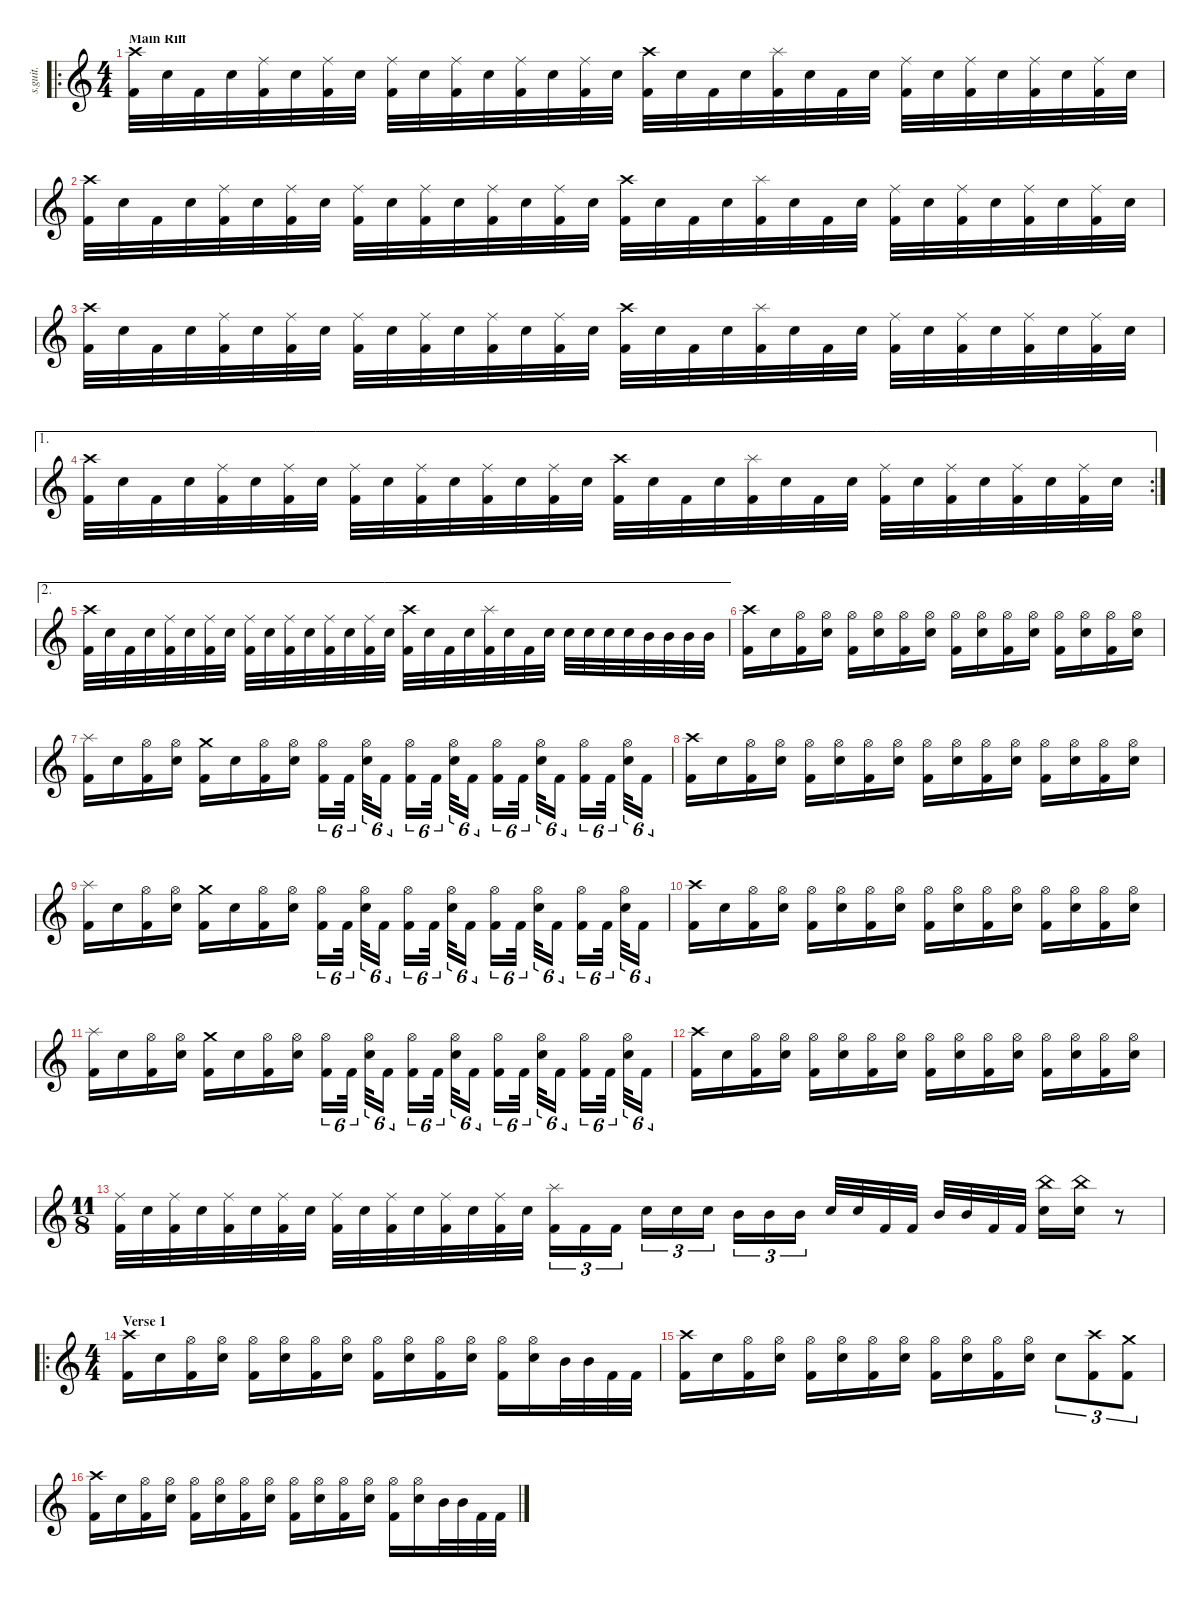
\defaultSystemsLayout 4
\hideDynamics
\bracketExtendMode nobrackets
\track ("Percussion" "s.guit.") {instrument percussion}
\staff {score}
\articulation defaults
\ro
\ts (4 4)
\beaming (8 2 2 2 2)
\section ("" "Main Riff")
\tempo (120 hide)
\clef g2
\ks c
("Kick (hit) 2" "Crash high (hit)").32{lyrics (0 "") lyrics (1 "") lyrics (2 "") lyrics (3 "") lyrics (4 "") dy f} "Snare (hit) 2".32{lyrics (0 "") lyrics (1 "") lyrics (2 "") lyrics (3 "") lyrics (4 "")} "Kick (hit) 2".32{lyrics (0 "") lyrics (1 "") lyrics (2 "") lyrics (3 "") lyrics (4 "")} "Snare (hit) 2".32{lyrics (0 "") lyrics (1 "") lyrics (2 "") lyrics (3 "") lyrics (4 "")} ("Ride (middle)" "Kick (hit) 2").32{lyrics (0 "") lyrics (1 "") lyrics (2 "") lyrics (3 "") lyrics (4 "")} "Snare (hit) 2".32{lyrics (0 "") lyrics (1 "") lyrics (2 "") lyrics (3 "") lyrics (4 "")} ("Ride (middle)" "Kick (hit) 2").32{lyrics (0 "") lyrics (1 "") lyrics (2 "") lyrics (3 "") lyrics (4 "")} "Snare (hit) 2".32{lyrics (0 "") lyrics (1 "") lyrics (2 "") lyrics (3 "") lyrics (4 "")} ("Ride (middle)" "Kick (hit) 2").32{lyrics (0 "") lyrics (1 "") lyrics (2 "") lyrics (3 "") lyrics (4 "")} "Snare (hit) 2".32{lyrics (0 "") lyrics (1 "") lyrics (2 "") lyrics (3 "") lyrics (4 "")} ("Ride (middle)" "Kick (hit) 2").32{lyrics (0 "") lyrics (1 "") lyrics (2 "") lyrics (3 "") lyrics (4 "")} "Snare (hit) 2".32{lyrics (0 "") lyrics (1 "") lyrics (2 "") lyrics (3 "") lyrics (4 "")} ("Ride (middle)" "Kick (hit) 2").32{lyrics (0 "") lyrics (1 "") lyrics (2 "") lyrics (3 "") lyrics (4 "")} "Snare (hit) 2".32{lyrics (0 "") lyrics (1 "") lyrics (2 "") lyrics (3 "") lyrics (4 "")} ("Ride (middle)" "Kick (hit) 2").32{lyrics (0 "") lyrics (1 "") lyrics (2 "") lyrics (3 "") lyrics (4 "")} "Snare (hit) 2".32{lyrics (0 "") lyrics (1 "") lyrics (2 "") lyrics (3 "") lyrics (4 "")} ("Kick (hit) 2" "Crash high (hit)").32{lyrics (0 "") lyrics (1 "") lyrics (2 "") lyrics (3 "") lyrics (4 "")} "Snare (hit) 2".32{lyrics (0 "") lyrics (1 "") lyrics (2 "") lyrics (3 "") lyrics (4 "")} "Kick (hit) 2".32{lyrics (0 "") lyrics (1 "") lyrics (2 "") lyrics (3 "") lyrics (4 "")} "Snare (hit) 2".32{lyrics (0 "") lyrics (1 "") lyrics (2 "") lyrics (3 "") lyrics (4 "")} ("Kick (hit) 2" "Splash (hit)").32{lyrics (0 "") lyrics (1 "") lyrics (2 "") lyrics (3 "") lyrics (4 "")} "Snare (hit) 2".32{lyrics (0 "") lyrics (1 "") lyrics (2 "") lyrics (3 "") lyrics (4 "")} "Kick (hit) 2".32{lyrics (0 "") lyrics (1 "") lyrics (2 "") lyrics (3 "") lyrics (4 "")} "Snare (hit) 2".32{lyrics (0 "") lyrics (1 "") lyrics (2 "") lyrics (3 "") lyrics (4 "")} ("Ride (middle)" "Kick (hit) 2").32{lyrics (0 "") lyrics (1 "") lyrics (2 "") lyrics (3 "") lyrics (4 "")} "Snare (hit) 2".32{lyrics (0 "") lyrics (1 "") lyrics (2 "") lyrics (3 "") lyrics (4 "")} ("Ride (middle)" "Kick (hit) 2").32{lyrics (0 "") lyrics (1 "") lyrics (2 "") lyrics (3 "") lyrics (4 "")} "Snare (hit) 2".32{lyrics (0 "") lyrics (1 "") lyrics (2 "") lyrics (3 "") lyrics (4 "")} ("Ride (middle)" "Kick (hit) 2").32{lyrics (0 "") lyrics (1 "") lyrics (2 "") lyrics (3 "") lyrics (4 "")} "Snare (hit) 2".32{lyrics (0 "") lyrics (1 "") lyrics (2 "") lyrics (3 "") lyrics (4 "")} ("Ride (middle)" "Kick (hit) 2").32{lyrics (0 "") lyrics (1 "") lyrics (2 "") lyrics (3 "") lyrics (4 "")} "Snare (hit) 2".32{lyrics (0 "") lyrics (1 "") lyrics (2 "") lyrics (3 "") lyrics (4 "")} |
("Kick (hit) 2" "Crash high (hit)").32{lyrics (0 "") lyrics (1 "") lyrics (2 "") lyrics (3 "") lyrics (4 "")} "Snare (hit) 2".32{lyrics (0 "") lyrics (1 "") lyrics (2 "") lyrics (3 "") lyrics (4 "")} "Kick (hit) 2".32{lyrics (0 "") lyrics (1 "") lyrics (2 "") lyrics (3 "") lyrics (4 "")} "Snare (hit) 2".32{lyrics (0 "") lyrics (1 "") lyrics (2 "") lyrics (3 "") lyrics (4 "")} ("Ride (middle)" "Kick (hit) 2").32{lyrics (0 "") lyrics (1 "") lyrics (2 "") lyrics (3 "") lyrics (4 "")} "Snare (hit) 2".32{lyrics (0 "") lyrics (1 "") lyrics (2 "") lyrics (3 "") lyrics (4 "")} ("Ride (middle)" "Kick (hit) 2").32{lyrics (0 "") lyrics (1 "") lyrics (2 "") lyrics (3 "") lyrics (4 "")} "Snare (hit) 2".32{lyrics (0 "") lyrics (1 "") lyrics (2 "") lyrics (3 "") lyrics (4 "")} ("Ride (middle)" "Kick (hit) 2").32{lyrics (0 "") lyrics (1 "") lyrics (2 "") lyrics (3 "") lyrics (4 "")} "Snare (hit) 2".32{lyrics (0 "") lyrics (1 "") lyrics (2 "") lyrics (3 "") lyrics (4 "")} ("Ride (middle)" "Kick (hit) 2").32{lyrics (0 "") lyrics (1 "") lyrics (2 "") lyrics (3 "") lyrics (4 "")} "Snare (hit) 2".32{lyrics (0 "") lyrics (1 "") lyrics (2 "") lyrics (3 "") lyrics (4 "")} ("Ride (middle)" "Kick (hit) 2").32{lyrics (0 "") lyrics (1 "") lyrics (2 "") lyrics (3 "") lyrics (4 "")} "Snare (hit) 2".32{lyrics (0 "") lyrics (1 "") lyrics (2 "") lyrics (3 "") lyrics (4 "")} ("Ride (middle)" "Kick (hit) 2").32{lyrics (0 "") lyrics (1 "") lyrics (2 "") lyrics (3 "") lyrics (4 "")} "Snare (hit) 2".32{lyrics (0 "") lyrics (1 "") lyrics (2 "") lyrics (3 "") lyrics (4 "")} ("Kick (hit) 2" "Crash high (hit)").32{lyrics (0 "") lyrics (1 "") lyrics (2 "") lyrics (3 "") lyrics (4 "")} "Snare (hit) 2".32{lyrics (0 "") lyrics (1 "") lyrics (2 "") lyrics (3 "") lyrics (4 "")} "Kick (hit) 2".32{lyrics (0 "") lyrics (1 "") lyrics (2 "") lyrics (3 "") lyrics (4 "")} "Snare (hit) 2".32{lyrics (0 "") lyrics (1 "") lyrics (2 "") lyrics (3 "") lyrics (4 "")} ("Kick (hit) 2" "Splash (hit)").32{lyrics (0 "") lyrics (1 "") lyrics (2 "") lyrics (3 "") lyrics (4 "")} "Snare (hit) 2".32{lyrics (0 "") lyrics (1 "") lyrics (2 "") lyrics (3 "") lyrics (4 "")} "Kick (hit) 2".32{lyrics (0 "") lyrics (1 "") lyrics (2 "") lyrics (3 "") lyrics (4 "")} "Snare (hit) 2".32{lyrics (0 "") lyrics (1 "") lyrics (2 "") lyrics (3 "") lyrics (4 "")} ("Ride (middle)" "Kick (hit) 2").32{lyrics (0 "") lyrics (1 "") lyrics (2 "") lyrics (3 "") lyrics (4 "")} "Snare (hit) 2".32{lyrics (0 "") lyrics (1 "") lyrics (2 "") lyrics (3 "") lyrics (4 "")} ("Ride (middle)" "Kick (hit) 2").32{lyrics (0 "") lyrics (1 "") lyrics (2 "") lyrics (3 "") lyrics (4 "")} "Snare (hit) 2".32{lyrics (0 "") lyrics (1 "") lyrics (2 "") lyrics (3 "") lyrics (4 "")} ("Ride (middle)" "Kick (hit) 2").32{lyrics (0 "") lyrics (1 "") lyrics (2 "") lyrics (3 "") lyrics (4 "")} "Snare (hit) 2".32{lyrics (0 "") lyrics (1 "") lyrics (2 "") lyrics (3 "") lyrics (4 "")} ("Ride (middle)" "Kick (hit) 2").32{lyrics (0 "") lyrics (1 "") lyrics (2 "") lyrics (3 "") lyrics (4 "")} "Snare (hit) 2".32{lyrics (0 "") lyrics (1 "") lyrics (2 "") lyrics (3 "") lyrics (4 "")} |
("Kick (hit) 2" "Crash high (hit)").32{lyrics (0 "") lyrics (1 "") lyrics (2 "") lyrics (3 "") lyrics (4 "")} "Snare (hit) 2".32{lyrics (0 "") lyrics (1 "") lyrics (2 "") lyrics (3 "") lyrics (4 "")} "Kick (hit) 2".32{lyrics (0 "") lyrics (1 "") lyrics (2 "") lyrics (3 "") lyrics (4 "")} "Snare (hit) 2".32{lyrics (0 "") lyrics (1 "") lyrics (2 "") lyrics (3 "") lyrics (4 "")} ("Ride (middle)" "Kick (hit) 2").32{lyrics (0 "") lyrics (1 "") lyrics (2 "") lyrics (3 "") lyrics (4 "")} "Snare (hit) 2".32{lyrics (0 "") lyrics (1 "") lyrics (2 "") lyrics (3 "") lyrics (4 "")} ("Ride (middle)" "Kick (hit) 2").32{lyrics (0 "") lyrics (1 "") lyrics (2 "") lyrics (3 "") lyrics (4 "")} "Snare (hit) 2".32{lyrics (0 "") lyrics (1 "") lyrics (2 "") lyrics (3 "") lyrics (4 "")} ("Ride (middle)" "Kick (hit) 2").32{lyrics (0 "") lyrics (1 "") lyrics (2 "") lyrics (3 "") lyrics (4 "")} "Snare (hit) 2".32{lyrics (0 "") lyrics (1 "") lyrics (2 "") lyrics (3 "") lyrics (4 "")} ("Ride (middle)" "Kick (hit) 2").32{lyrics (0 "") lyrics (1 "") lyrics (2 "") lyrics (3 "") lyrics (4 "")} "Snare (hit) 2".32{lyrics (0 "") lyrics (1 "") lyrics (2 "") lyrics (3 "") lyrics (4 "")} ("Ride (middle)" "Kick (hit) 2").32{lyrics (0 "") lyrics (1 "") lyrics (2 "") lyrics (3 "") lyrics (4 "")} "Snare (hit) 2".32{lyrics (0 "") lyrics (1 "") lyrics (2 "") lyrics (3 "") lyrics (4 "")} ("Ride (middle)" "Kick (hit) 2").32{lyrics (0 "") lyrics (1 "") lyrics (2 "") lyrics (3 "") lyrics (4 "")} "Snare (hit) 2".32{lyrics (0 "") lyrics (1 "") lyrics (2 "") lyrics (3 "") lyrics (4 "")} ("Kick (hit) 2" "Crash high (hit)").32{lyrics (0 "") lyrics (1 "") lyrics (2 "") lyrics (3 "") lyrics (4 "")} "Snare (hit) 2".32{lyrics (0 "") lyrics (1 "") lyrics (2 "") lyrics (3 "") lyrics (4 "")} "Kick (hit) 2".32{lyrics (0 "") lyrics (1 "") lyrics (2 "") lyrics (3 "") lyrics (4 "")} "Snare (hit) 2".32{lyrics (0 "") lyrics (1 "") lyrics (2 "") lyrics (3 "") lyrics (4 "")} ("Kick (hit) 2" "Splash (hit)").32{lyrics (0 "") lyrics (1 "") lyrics (2 "") lyrics (3 "") lyrics (4 "")} "Snare (hit) 2".32{lyrics (0 "") lyrics (1 "") lyrics (2 "") lyrics (3 "") lyrics (4 "")} "Kick (hit) 2".32{lyrics (0 "") lyrics (1 "") lyrics (2 "") lyrics (3 "") lyrics (4 "")} "Snare (hit) 2".32{lyrics (0 "") lyrics (1 "") lyrics (2 "") lyrics (3 "") lyrics (4 "")} ("Ride (middle)" "Kick (hit) 2").32{lyrics (0 "") lyrics (1 "") lyrics (2 "") lyrics (3 "") lyrics (4 "")} "Snare (hit) 2".32{lyrics (0 "") lyrics (1 "") lyrics (2 "") lyrics (3 "") lyrics (4 "")} ("Kick (hit) 2" "Ride (middle)").32{lyrics (0 "") lyrics (1 "") lyrics (2 "") lyrics (3 "") lyrics (4 "")} "Snare (hit) 2".32{lyrics (0 "") lyrics (1 "") lyrics (2 "") lyrics (3 "") lyrics (4 "")} ("Ride (middle)" "Kick (hit) 2").32{lyrics (0 "") lyrics (1 "") lyrics (2 "") lyrics (3 "") lyrics (4 "")} "Snare (hit) 2".32{lyrics (0 "") lyrics (1 "") lyrics (2 "") lyrics (3 "") lyrics (4 "")} ("Ride (middle)" "Kick (hit) 2").32{lyrics (0 "") lyrics (1 "") lyrics (2 "") lyrics (3 "") lyrics (4 "")} "Snare (hit) 2".32{lyrics (0 "") lyrics (1 "") lyrics (2 "") lyrics (3 "") lyrics (4 "")} |
\ae 1
\rc 2
("Kick (hit) 2" "Crash high (hit)").32{lyrics (0 "") lyrics (1 "") lyrics (2 "") lyrics (3 "") lyrics (4 "")} "Snare (hit) 2".32{lyrics (0 "") lyrics (1 "") lyrics (2 "") lyrics (3 "") lyrics (4 "")} "Kick (hit) 2".32{lyrics (0 "") lyrics (1 "") lyrics (2 "") lyrics (3 "") lyrics (4 "")} "Snare (hit) 2".32{lyrics (0 "") lyrics (1 "") lyrics (2 "") lyrics (3 "") lyrics (4 "")} ("Ride (middle)" "Kick (hit) 2").32{lyrics (0 "") lyrics (1 "") lyrics (2 "") lyrics (3 "") lyrics (4 "")} "Snare (hit) 2".32{lyrics (0 "") lyrics (1 "") lyrics (2 "") lyrics (3 "") lyrics (4 "")} ("Ride (middle)" "Kick (hit) 2").32{lyrics (0 "") lyrics (1 "") lyrics (2 "") lyrics (3 "") lyrics (4 "")} "Snare (hit) 2".32{lyrics (0 "") lyrics (1 "") lyrics (2 "") lyrics (3 "") lyrics (4 "")} ("Ride (middle)" "Kick (hit) 2").32{lyrics (0 "") lyrics (1 "") lyrics (2 "") lyrics (3 "") lyrics (4 "")} "Snare (hit) 2".32{lyrics (0 "") lyrics (1 "") lyrics (2 "") lyrics (3 "") lyrics (4 "")} ("Ride (middle)" "Kick (hit) 2").32{lyrics (0 "") lyrics (1 "") lyrics (2 "") lyrics (3 "") lyrics (4 "")} "Snare (hit) 2".32{lyrics (0 "") lyrics (1 "") lyrics (2 "") lyrics (3 "") lyrics (4 "")} ("Ride (middle)" "Kick (hit) 2").32{lyrics (0 "") lyrics (1 "") lyrics (2 "") lyrics (3 "") lyrics (4 "")} "Snare (hit) 2".32{lyrics (0 "") lyrics (1 "") lyrics (2 "") lyrics (3 "") lyrics (4 "")} ("Ride (middle)" "Kick (hit) 2").32{lyrics (0 "") lyrics (1 "") lyrics (2 "") lyrics (3 "") lyrics (4 "")} "Snare (hit) 2".32{lyrics (0 "") lyrics (1 "") lyrics (2 "") lyrics (3 "") lyrics (4 "")} ("Kick (hit) 2" "Crash high (hit)").32{lyrics (0 "") lyrics (1 "") lyrics (2 "") lyrics (3 "") lyrics (4 "")} "Snare (hit) 2".32{lyrics (0 "") lyrics (1 "") lyrics (2 "") lyrics (3 "") lyrics (4 "")} "Kick (hit) 2".32{lyrics (0 "") lyrics (1 "") lyrics (2 "") lyrics (3 "") lyrics (4 "")} "Snare (hit) 2".32{lyrics (0 "") lyrics (1 "") lyrics (2 "") lyrics (3 "") lyrics (4 "")} ("Kick (hit) 2" "Splash (hit)").32{lyrics (0 "") lyrics (1 "") lyrics (2 "") lyrics (3 "") lyrics (4 "")} "Snare (hit) 2".32{lyrics (0 "") lyrics (1 "") lyrics (2 "") lyrics (3 "") lyrics (4 "")} "Kick (hit) 2".32{lyrics (0 "") lyrics (1 "") lyrics (2 "") lyrics (3 "") lyrics (4 "")} "Snare (hit) 2".32{lyrics (0 "") lyrics (1 "") lyrics (2 "") lyrics (3 "") lyrics (4 "")} ("Ride (middle)" "Kick (hit) 2").32{lyrics (0 "") lyrics (1 "") lyrics (2 "") lyrics (3 "") lyrics (4 "")} "Snare (hit) 2".32{lyrics (0 "") lyrics (1 "") lyrics (2 "") lyrics (3 "") lyrics (4 "")} ("Kick (hit) 2" "Ride (middle)").32{lyrics (0 "") lyrics (1 "") lyrics (2 "") lyrics (3 "") lyrics (4 "")} "Snare (hit) 2".32{lyrics (0 "") lyrics (1 "") lyrics (2 "") lyrics (3 "") lyrics (4 "")} ("Ride (middle)" "Kick (hit) 2").32{lyrics (0 "") lyrics (1 "") lyrics (2 "") lyrics (3 "") lyrics (4 "")} "Snare (hit) 2".32{lyrics (0 "") lyrics (1 "") lyrics (2 "") lyrics (3 "") lyrics (4 "")} ("Ride (middle)" "Kick (hit) 2").32{lyrics (0 "") lyrics (1 "") lyrics (2 "") lyrics (3 "") lyrics (4 "")} "Snare (hit) 2".32{lyrics (0 "") lyrics (1 "") lyrics (2 "") lyrics (3 "") lyrics (4 "")} |
\ae 2
("Kick (hit) 2" "Crash high (hit)").32{lyrics (0 "") lyrics (1 "") lyrics (2 "") lyrics (3 "") lyrics (4 "")} "Snare (hit) 2".32{lyrics (0 "") lyrics (1 "") lyrics (2 "") lyrics (3 "") lyrics (4 "")} "Kick (hit) 2".32{lyrics (0 "") lyrics (1 "") lyrics (2 "") lyrics (3 "") lyrics (4 "")} "Snare (hit) 2".32{lyrics (0 "") lyrics (1 "") lyrics (2 "") lyrics (3 "") lyrics (4 "")} ("Ride (middle)" "Kick (hit) 2").32{lyrics (0 "") lyrics (1 "") lyrics (2 "") lyrics (3 "") lyrics (4 "")} "Snare (hit) 2".32{lyrics (0 "") lyrics (1 "") lyrics (2 "") lyrics (3 "") lyrics (4 "")} ("Ride (middle)" "Kick (hit) 2").32{lyrics (0 "") lyrics (1 "") lyrics (2 "") lyrics (3 "") lyrics (4 "")} "Snare (hit) 2".32{lyrics (0 "") lyrics (1 "") lyrics (2 "") lyrics (3 "") lyrics (4 "")} ("Ride (middle)" "Kick (hit) 2").32{lyrics (0 "") lyrics (1 "") lyrics (2 "") lyrics (3 "") lyrics (4 "")} "Snare (hit) 2".32{lyrics (0 "") lyrics (1 "") lyrics (2 "") lyrics (3 "") lyrics (4 "")} ("Ride (middle)" "Kick (hit) 2").32{lyrics (0 "") lyrics (1 "") lyrics (2 "") lyrics (3 "") lyrics (4 "")} "Snare (hit) 2".32{lyrics (0 "") lyrics (1 "") lyrics (2 "") lyrics (3 "") lyrics (4 "")} ("Ride (middle)" "Kick (hit) 2").32{lyrics (0 "") lyrics (1 "") lyrics (2 "") lyrics (3 "") lyrics (4 "")} "Snare (hit) 2".32{lyrics (0 "") lyrics (1 "") lyrics (2 "") lyrics (3 "") lyrics (4 "")} ("Ride (middle)" "Kick (hit) 2").32{lyrics (0 "") lyrics (1 "") lyrics (2 "") lyrics (3 "") lyrics (4 "")} "Snare (hit) 2".32{lyrics (0 "") lyrics (1 "") lyrics (2 "") lyrics (3 "") lyrics (4 "")} ("Kick (hit) 2" "Crash high (hit)").32{lyrics (0 "") lyrics (1 "") lyrics (2 "") lyrics (3 "") lyrics (4 "")} "Snare (hit) 2".32{lyrics (0 "") lyrics (1 "") lyrics (2 "") lyrics (3 "") lyrics (4 "")} "Kick (hit) 2".32{lyrics (0 "") lyrics (1 "") lyrics (2 "") lyrics (3 "") lyrics (4 "")} "Snare (hit) 2".32{lyrics (0 "") lyrics (1 "") lyrics (2 "") lyrics (3 "") lyrics (4 "")} ("Kick (hit) 2" "Splash (hit)").32{lyrics (0 "") lyrics (1 "") lyrics (2 "") lyrics (3 "") lyrics (4 "")} "Snare (hit) 2".32{lyrics (0 "") lyrics (1 "") lyrics (2 "") lyrics (3 "") lyrics (4 "")} "Kick (hit) 2".32{lyrics (0 "") lyrics (1 "") lyrics (2 "") lyrics (3 "") lyrics (4 "")} "Snare (hit) 2".32{lyrics (0 "") lyrics (1 "") lyrics (2 "") lyrics (3 "") lyrics (4 "")} "Snare (hit) 2".32{lyrics (0 "") lyrics (1 "") lyrics (2 "") lyrics (3 "") lyrics (4 "")} "Snare (hit) 2".32{lyrics (0 "") lyrics (1 "") lyrics (2 "") lyrics (3 "") lyrics (4 "")} "Snare (hit) 2".32{lyrics (0 "") lyrics (1 "") lyrics (2 "") lyrics (3 "") lyrics (4 "")} "Snare (hit) 2".32{lyrics (0 "") lyrics (1 "") lyrics (2 "") lyrics (3 "") lyrics (4 "")} "Mid Tom (hit)".32{lyrics (0 "") lyrics (1 "") lyrics (2 "") lyrics (3 "") lyrics (4 "")} "Mid Tom (hit)".32{lyrics (0 "") lyrics (1 "") lyrics (2 "") lyrics (3 "") lyrics (4 "")} "Mid Tom (hit)".32{lyrics (0 "") lyrics (1 "") lyrics (2 "") lyrics (3 "") lyrics (4 "")} "Mid Tom (hit)".32{lyrics (0 "") lyrics (1 "") lyrics (2 "") lyrics (3 "") lyrics (4 "")} |
("Kick (hit) 2" "Crash high (hit)").16{lyrics (0 "") lyrics (1 "") lyrics (2 "") lyrics (3 "") lyrics (4 "")} "Snare (hit) 2".16{lyrics (0 "") lyrics (1 "") lyrics (2 "") lyrics (3 "") lyrics (4 "")} ("Hi-Hat (open)" "Kick (hit) 2").16{lyrics (0 "") lyrics (1 "") lyrics (2 "") lyrics (3 "") lyrics (4 "")} ("Hi-Hat (open)" "Snare (hit) 2").16{lyrics (0 "") lyrics (1 "") lyrics (2 "") lyrics (3 "") lyrics (4 "")} ("Hi-Hat (open)" "Kick (hit) 2").16{lyrics (0 "") lyrics (1 "") lyrics (2 "") lyrics (3 "") lyrics (4 "")} ("Hi-Hat (open)" "Snare (hit) 2").16{lyrics (0 "") lyrics (1 "") lyrics (2 "") lyrics (3 "") lyrics (4 "")} ("Hi-Hat (open)" "Kick (hit) 2").16{lyrics (0 "") lyrics (1 "") lyrics (2 "") lyrics (3 "") lyrics (4 "")} ("Hi-Hat (open)" "Snare (hit) 2").16{lyrics (0 "") lyrics (1 "") lyrics (2 "") lyrics (3 "") lyrics (4 "")} ("Hi-Hat (open)" "Kick (hit) 2").16{lyrics (0 "") lyrics (1 "") lyrics (2 "") lyrics (3 "") lyrics (4 "")} ("Hi-Hat (open)" "Snare (hit) 2").16{lyrics (0 "") lyrics (1 "") lyrics (2 "") lyrics (3 "") lyrics (4 "")} ("Hi-Hat (open)" "Kick (hit) 2").16{lyrics (0 "") lyrics (1 "") lyrics (2 "") lyrics (3 "") lyrics (4 "")} ("Hi-Hat (open)" "Snare (hit) 2").16{lyrics (0 "") lyrics (1 "") lyrics (2 "") lyrics (3 "") lyrics (4 "")} ("Hi-Hat (open)" "Kick (hit) 2").16{lyrics (0 "") lyrics (1 "") lyrics (2 "") lyrics (3 "") lyrics (4 "")} ("Hi-Hat (open)" "Snare (hit) 2").16{lyrics (0 "") lyrics (1 "") lyrics (2 "") lyrics (3 "") lyrics (4 "")} ("Hi-Hat (open)" "Kick (hit) 2").16{lyrics (0 "") lyrics (1 "") lyrics (2 "") lyrics (3 "") lyrics (4 "")} ("Hi-Hat (open)" "Snare (hit) 2").16{lyrics (0 "") lyrics (1 "") lyrics (2 "") lyrics (3 "") lyrics (4 "")} |
("Splash (hit)" "Kick (hit) 2").16{lyrics (0 "") lyrics (1 "") lyrics (2 "") lyrics (3 "") lyrics (4 "")} "Snare (hit) 2".16{lyrics (0 "") lyrics (1 "") lyrics (2 "") lyrics (3 "") lyrics (4 "")} ("Hi-Hat (open)" "Kick (hit) 2").16{lyrics (0 "") lyrics (1 "") lyrics (2 "") lyrics (3 "") lyrics (4 "")} ("Hi-Hat (open)" "Snare (hit) 2").16{lyrics (0 "") lyrics (1 "") lyrics (2 "") lyrics (3 "") lyrics (4 "")} ("Crash medium (hit)" "Kick (hit) 2").16{lyrics (0 "") lyrics (1 "") lyrics (2 "") lyrics (3 "") lyrics (4 "")} "Snare (hit) 2".16{lyrics (0 "") lyrics (1 "") lyrics (2 "") lyrics (3 "") lyrics (4 "")} ("Hi-Hat (open)" "Kick (hit) 2").16{lyrics (0 "") lyrics (1 "") lyrics (2 "") lyrics (3 "") lyrics (4 "")} ("Hi-Hat (open)" "Snare (hit) 2").16{lyrics (0 "") lyrics (1 "") lyrics (2 "") lyrics (3 "") lyrics (4 "")} ("Hi-Hat (open)" "Kick (hit) 2").16{tu (6 4) lyrics (0 "") lyrics (1 "") lyrics (2 "") lyrics (3 "") lyrics (4 "")} "Kick (hit) 2".32{tu (6 4) lyrics (0 "") lyrics (1 "") lyrics (2 "") lyrics (3 "") lyrics (4 "")} ("Hi-Hat (open)" "Snare (hit) 2").32{tu (6 4) lyrics (0 "") lyrics (1 "") lyrics (2 "") lyrics (3 "") lyrics (4 "")} "Kick (hit) 2".16{tu (6 4) lyrics (0 "") lyrics (1 "") lyrics (2 "") lyrics (3 "") lyrics (4 "")} ("Hi-Hat (open)" "Kick (hit) 2").16{tu (6 4) lyrics (0 "") lyrics (1 "") lyrics (2 "") lyrics (3 "") lyrics (4 "")} "Kick (hit) 2".32{tu (6 4) lyrics (0 "") lyrics (1 "") lyrics (2 "") lyrics (3 "") lyrics (4 "")} ("Hi-Hat (open)" "Snare (hit) 2").32{tu (6 4) lyrics (0 "") lyrics (1 "") lyrics (2 "") lyrics (3 "") lyrics (4 "")} "Kick (hit) 2".16{tu (6 4) lyrics (0 "") lyrics (1 "") lyrics (2 "") lyrics (3 "") lyrics (4 "")} ("Hi-Hat (open)" "Kick (hit) 2").16{tu (6 4) lyrics (0 "") lyrics (1 "") lyrics (2 "") lyrics (3 "") lyrics (4 "")} "Kick (hit) 2".32{tu (6 4) lyrics (0 "") lyrics (1 "") lyrics (2 "") lyrics (3 "") lyrics (4 "")} ("Hi-Hat (open)" "Snare (hit) 2").32{tu (6 4) lyrics (0 "") lyrics (1 "") lyrics (2 "") lyrics (3 "") lyrics (4 "")} "Kick (hit) 2".16{tu (6 4) lyrics (0 "") lyrics (1 "") lyrics (2 "") lyrics (3 "") lyrics (4 "")} ("Hi-Hat (open)" "Kick (hit) 2").16{tu (6 4) lyrics (0 "") lyrics (1 "") lyrics (2 "") lyrics (3 "") lyrics (4 "")} "Kick (hit) 2".32{tu (6 4) lyrics (0 "") lyrics (1 "") lyrics (2 "") lyrics (3 "") lyrics (4 "")} ("Hi-Hat (open)" "Snare (hit) 2").32{tu (6 4) lyrics (0 "") lyrics (1 "") lyrics (2 "") lyrics (3 "") lyrics (4 "")} "Kick (hit) 2".16{tu (6 4) lyrics (0 "") lyrics (1 "") lyrics (2 "") lyrics (3 "") lyrics (4 "")} |
("Kick (hit) 2" "Crash high (hit)").16{lyrics (0 "") lyrics (1 "") lyrics (2 "") lyrics (3 "") lyrics (4 "")} "Snare (hit) 2".16{lyrics (0 "") lyrics (1 "") lyrics (2 "") lyrics (3 "") lyrics (4 "")} ("Hi-Hat (open)" "Kick (hit) 2").16{lyrics (0 "") lyrics (1 "") lyrics (2 "") lyrics (3 "") lyrics (4 "")} ("Hi-Hat (open)" "Snare (hit) 2").16{lyrics (0 "") lyrics (1 "") lyrics (2 "") lyrics (3 "") lyrics (4 "")} ("Hi-Hat (open)" "Kick (hit) 2").16{lyrics (0 "") lyrics (1 "") lyrics (2 "") lyrics (3 "") lyrics (4 "")} ("Hi-Hat (open)" "Snare (hit) 2").16{lyrics (0 "") lyrics (1 "") lyrics (2 "") lyrics (3 "") lyrics (4 "")} ("Hi-Hat (open)" "Kick (hit) 2").16{lyrics (0 "") lyrics (1 "") lyrics (2 "") lyrics (3 "") lyrics (4 "")} ("Hi-Hat (open)" "Snare (hit) 2").16{lyrics (0 "") lyrics (1 "") lyrics (2 "") lyrics (3 "") lyrics (4 "")} ("Hi-Hat (open)" "Kick (hit) 2").16{lyrics (0 "") lyrics (1 "") lyrics (2 "") lyrics (3 "") lyrics (4 "")} ("Hi-Hat (open)" "Snare (hit) 2").16{lyrics (0 "") lyrics (1 "") lyrics (2 "") lyrics (3 "") lyrics (4 "")} ("Hi-Hat (open)" "Kick (hit) 2").16{lyrics (0 "") lyrics (1 "") lyrics (2 "") lyrics (3 "") lyrics (4 "")} ("Hi-Hat (open)" "Snare (hit) 2").16{lyrics (0 "") lyrics (1 "") lyrics (2 "") lyrics (3 "") lyrics (4 "")} ("Hi-Hat (open)" "Kick (hit) 2").16{lyrics (0 "") lyrics (1 "") lyrics (2 "") lyrics (3 "") lyrics (4 "")} ("Hi-Hat (open)" "Snare (hit) 2").16{lyrics (0 "") lyrics (1 "") lyrics (2 "") lyrics (3 "") lyrics (4 "")} ("Hi-Hat (open)" "Kick (hit) 2").16{lyrics (0 "") lyrics (1 "") lyrics (2 "") lyrics (3 "") lyrics (4 "")} ("Hi-Hat (open)" "Snare (hit) 2").16{lyrics (0 "") lyrics (1 "") lyrics (2 "") lyrics (3 "") lyrics (4 "")} |
("Splash (hit)" "Kick (hit) 2").16{lyrics (0 "") lyrics (1 "") lyrics (2 "") lyrics (3 "") lyrics (4 "")} "Snare (hit) 2".16{lyrics (0 "") lyrics (1 "") lyrics (2 "") lyrics (3 "") lyrics (4 "")} ("Hi-Hat (open)" "Kick (hit) 2").16{lyrics (0 "") lyrics (1 "") lyrics (2 "") lyrics (3 "") lyrics (4 "")} ("Hi-Hat (open)" "Snare (hit) 2").16{lyrics (0 "") lyrics (1 "") lyrics (2 "") lyrics (3 "") lyrics (4 "")} ("Crash medium (hit)" "Kick (hit) 2").16{lyrics (0 "") lyrics (1 "") lyrics (2 "") lyrics (3 "") lyrics (4 "")} "Snare (hit) 2".16{lyrics (0 "") lyrics (1 "") lyrics (2 "") lyrics (3 "") lyrics (4 "")} ("Hi-Hat (open)" "Kick (hit) 2").16{lyrics (0 "") lyrics (1 "") lyrics (2 "") lyrics (3 "") lyrics (4 "")} ("Hi-Hat (open)" "Snare (hit) 2").16{lyrics (0 "") lyrics (1 "") lyrics (2 "") lyrics (3 "") lyrics (4 "")} ("Hi-Hat (open)" "Kick (hit) 2").16{tu (6 4) lyrics (0 "") lyrics (1 "") lyrics (2 "") lyrics (3 "") lyrics (4 "")} "Kick (hit) 2".32{tu (6 4) lyrics (0 "") lyrics (1 "") lyrics (2 "") lyrics (3 "") lyrics (4 "")} ("Hi-Hat (open)" "Snare (hit) 2").32{tu (6 4) lyrics (0 "") lyrics (1 "") lyrics (2 "") lyrics (3 "") lyrics (4 "")} "Kick (hit) 2".16{tu (6 4) lyrics (0 "") lyrics (1 "") lyrics (2 "") lyrics (3 "") lyrics (4 "")} ("Hi-Hat (open)" "Kick (hit) 2").16{tu (6 4) lyrics (0 "") lyrics (1 "") lyrics (2 "") lyrics (3 "") lyrics (4 "")} "Kick (hit) 2".32{tu (6 4) lyrics (0 "") lyrics (1 "") lyrics (2 "") lyrics (3 "") lyrics (4 "")} ("Hi-Hat (open)" "Snare (hit) 2").32{tu (6 4) lyrics (0 "") lyrics (1 "") lyrics (2 "") lyrics (3 "") lyrics (4 "")} "Kick (hit) 2".16{tu (6 4) lyrics (0 "") lyrics (1 "") lyrics (2 "") lyrics (3 "") lyrics (4 "")} ("Hi-Hat (open)" "Kick (hit) 2").16{tu (6 4) lyrics (0 "") lyrics (1 "") lyrics (2 "") lyrics (3 "") lyrics (4 "")} "Kick (hit) 2".32{tu (6 4) lyrics (0 "") lyrics (1 "") lyrics (2 "") lyrics (3 "") lyrics (4 "")} ("Hi-Hat (open)" "Snare (hit) 2").32{tu (6 4) lyrics (0 "") lyrics (1 "") lyrics (2 "") lyrics (3 "") lyrics (4 "")} "Kick (hit) 2".16{tu (6 4) lyrics (0 "") lyrics (1 "") lyrics (2 "") lyrics (3 "") lyrics (4 "")} ("Hi-Hat (open)" "Kick (hit) 2").16{tu (6 4) lyrics (0 "") lyrics (1 "") lyrics (2 "") lyrics (3 "") lyrics (4 "")} "Kick (hit) 2".32{tu (6 4) lyrics (0 "") lyrics (1 "") lyrics (2 "") lyrics (3 "") lyrics (4 "")} ("Hi-Hat (open)" "Snare (hit) 2").32{tu (6 4) lyrics (0 "") lyrics (1 "") lyrics (2 "") lyrics (3 "") lyrics (4 "")} "Kick (hit) 2".16{tu (6 4) lyrics (0 "") lyrics (1 "") lyrics (2 "") lyrics (3 "") lyrics (4 "")} |
("Kick (hit) 2" "Crash high (hit)").16{lyrics (0 "") lyrics (1 "") lyrics (2 "") lyrics (3 "") lyrics (4 "")} "Snare (hit) 2".16{lyrics (0 "") lyrics (1 "") lyrics (2 "") lyrics (3 "") lyrics (4 "")} ("Hi-Hat (open)" "Kick (hit) 2").16{lyrics (0 "") lyrics (1 "") lyrics (2 "") lyrics (3 "") lyrics (4 "")} ("Hi-Hat (open)" "Snare (hit) 2").16{lyrics (0 "") lyrics (1 "") lyrics (2 "") lyrics (3 "") lyrics (4 "")} ("Hi-Hat (open)" "Kick (hit) 2").16{lyrics (0 "") lyrics (1 "") lyrics (2 "") lyrics (3 "") lyrics (4 "")} ("Hi-Hat (open)" "Snare (hit) 2").16{lyrics (0 "") lyrics (1 "") lyrics (2 "") lyrics (3 "") lyrics (4 "")} ("Hi-Hat (open)" "Kick (hit) 2").16{lyrics (0 "") lyrics (1 "") lyrics (2 "") lyrics (3 "") lyrics (4 "")} ("Hi-Hat (open)" "Snare (hit) 2").16{lyrics (0 "") lyrics (1 "") lyrics (2 "") lyrics (3 "") lyrics (4 "")} ("Hi-Hat (open)" "Kick (hit) 2").16{lyrics (0 "") lyrics (1 "") lyrics (2 "") lyrics (3 "") lyrics (4 "")} ("Hi-Hat (open)" "Snare (hit) 2").16{lyrics (0 "") lyrics (1 "") lyrics (2 "") lyrics (3 "") lyrics (4 "")} ("Hi-Hat (open)" "Kick (hit) 2").16{lyrics (0 "") lyrics (1 "") lyrics (2 "") lyrics (3 "") lyrics (4 "")} ("Hi-Hat (open)" "Snare (hit) 2").16{lyrics (0 "") lyrics (1 "") lyrics (2 "") lyrics (3 "") lyrics (4 "")} ("Hi-Hat (open)" "Kick (hit) 2").16{lyrics (0 "") lyrics (1 "") lyrics (2 "") lyrics (3 "") lyrics (4 "")} ("Hi-Hat (open)" "Snare (hit) 2").16{lyrics (0 "") lyrics (1 "") lyrics (2 "") lyrics (3 "") lyrics (4 "")} ("Hi-Hat (open)" "Kick (hit) 2").16{lyrics (0 "") lyrics (1 "") lyrics (2 "") lyrics (3 "") lyrics (4 "")} ("Hi-Hat (open)" "Snare (hit) 2").16{lyrics (0 "") lyrics (1 "") lyrics (2 "") lyrics (3 "") lyrics (4 "")} |
("Splash (hit)" "Kick (hit) 2").16{lyrics (0 "") lyrics (1 "") lyrics (2 "") lyrics (3 "") lyrics (4 "")} "Snare (hit) 2".16{lyrics (0 "") lyrics (1 "") lyrics (2 "") lyrics (3 "") lyrics (4 "")} ("Hi-Hat (open)" "Kick (hit) 2").16{lyrics (0 "") lyrics (1 "") lyrics (2 "") lyrics (3 "") lyrics (4 "")} ("Hi-Hat (open)" "Snare (hit) 2").16{lyrics (0 "") lyrics (1 "") lyrics (2 "") lyrics (3 "") lyrics (4 "")} ("Crash medium (hit)" "Kick (hit) 2").16{lyrics (0 "") lyrics (1 "") lyrics (2 "") lyrics (3 "") lyrics (4 "")} "Snare (hit) 2".16{lyrics (0 "") lyrics (1 "") lyrics (2 "") lyrics (3 "") lyrics (4 "")} ("Hi-Hat (open)" "Kick (hit) 2").16{lyrics (0 "") lyrics (1 "") lyrics (2 "") lyrics (3 "") lyrics (4 "")} ("Hi-Hat (open)" "Snare (hit) 2").16{lyrics (0 "") lyrics (1 "") lyrics (2 "") lyrics (3 "") lyrics (4 "")} ("Hi-Hat (open)" "Kick (hit) 2").16{tu (6 4) lyrics (0 "") lyrics (1 "") lyrics (2 "") lyrics (3 "") lyrics (4 "")} "Kick (hit) 2".32{tu (6 4) lyrics (0 "") lyrics (1 "") lyrics (2 "") lyrics (3 "") lyrics (4 "")} ("Hi-Hat (open)" "Snare (hit) 2").32{tu (6 4) lyrics (0 "") lyrics (1 "") lyrics (2 "") lyrics (3 "") lyrics (4 "")} "Kick (hit) 2".16{tu (6 4) lyrics (0 "") lyrics (1 "") lyrics (2 "") lyrics (3 "") lyrics (4 "")} ("Hi-Hat (open)" "Kick (hit) 2").16{tu (6 4) lyrics (0 "") lyrics (1 "") lyrics (2 "") lyrics (3 "") lyrics (4 "")} "Kick (hit) 2".32{tu (6 4) lyrics (0 "") lyrics (1 "") lyrics (2 "") lyrics (3 "") lyrics (4 "")} ("Hi-Hat (open)" "Snare (hit) 2").32{tu (6 4) lyrics (0 "") lyrics (1 "") lyrics (2 "") lyrics (3 "") lyrics (4 "")} "Kick (hit) 2".16{tu (6 4) lyrics (0 "") lyrics (1 "") lyrics (2 "") lyrics (3 "") lyrics (4 "")} ("Hi-Hat (open)" "Kick (hit) 2").16{tu (6 4) lyrics (0 "") lyrics (1 "") lyrics (2 "") lyrics (3 "") lyrics (4 "")} "Kick (hit) 2".32{tu (6 4) lyrics (0 "") lyrics (1 "") lyrics (2 "") lyrics (3 "") lyrics (4 "")} ("Hi-Hat (open)" "Snare (hit) 2").32{tu (6 4) lyrics (0 "") lyrics (1 "") lyrics (2 "") lyrics (3 "") lyrics (4 "")} "Kick (hit) 2".16{tu (6 4) lyrics (0 "") lyrics (1 "") lyrics (2 "") lyrics (3 "") lyrics (4 "")} ("Hi-Hat (open)" "Kick (hit) 2").16{tu (6 4) lyrics (0 "") lyrics (1 "") lyrics (2 "") lyrics (3 "") lyrics (4 "")} "Kick (hit) 2".32{tu (6 4) lyrics (0 "") lyrics (1 "") lyrics (2 "") lyrics (3 "") lyrics (4 "")} ("Hi-Hat (open)" "Snare (hit) 2").32{tu (6 4) lyrics (0 "") lyrics (1 "") lyrics (2 "") lyrics (3 "") lyrics (4 "")} "Kick (hit) 2".16{tu (6 4) lyrics (0 "") lyrics (1 "") lyrics (2 "") lyrics (3 "") lyrics (4 "")} |
("Kick (hit) 2" "Crash high (hit)").16{lyrics (0 "") lyrics (1 "") lyrics (2 "") lyrics (3 "") lyrics (4 "")} "Snare (hit) 2".16{lyrics (0 "") lyrics (1 "") lyrics (2 "") lyrics (3 "") lyrics (4 "")} ("Hi-Hat (open)" "Kick (hit) 2").16{lyrics (0 "") lyrics (1 "") lyrics (2 "") lyrics (3 "") lyrics (4 "")} ("Hi-Hat (open)" "Snare (hit) 2").16{lyrics (0 "") lyrics (1 "") lyrics (2 "") lyrics (3 "") lyrics (4 "")} ("Hi-Hat (open)" "Kick (hit) 2").16{lyrics (0 "") lyrics (1 "") lyrics (2 "") lyrics (3 "") lyrics (4 "")} ("Hi-Hat (open)" "Snare (hit) 2").16{lyrics (0 "") lyrics (1 "") lyrics (2 "") lyrics (3 "") lyrics (4 "")} ("Hi-Hat (open)" "Kick (hit) 2").16{lyrics (0 "") lyrics (1 "") lyrics (2 "") lyrics (3 "") lyrics (4 "")} ("Hi-Hat (open)" "Snare (hit) 2").16{lyrics (0 "") lyrics (1 "") lyrics (2 "") lyrics (3 "") lyrics (4 "")} ("Hi-Hat (open)" "Kick (hit) 2").16{lyrics (0 "") lyrics (1 "") lyrics (2 "") lyrics (3 "") lyrics (4 "")} ("Hi-Hat (open)" "Snare (hit) 2").16{lyrics (0 "") lyrics (1 "") lyrics (2 "") lyrics (3 "") lyrics (4 "")} ("Hi-Hat (open)" "Kick (hit) 2").16{lyrics (0 "") lyrics (1 "") lyrics (2 "") lyrics (3 "") lyrics (4 "")} ("Hi-Hat (open)" "Snare (hit) 2").16{lyrics (0 "") lyrics (1 "") lyrics (2 "") lyrics (3 "") lyrics (4 "")} ("Hi-Hat (open)" "Kick (hit) 2").16{lyrics (0 "") lyrics (1 "") lyrics (2 "") lyrics (3 "") lyrics (4 "")} ("Hi-Hat (open)" "Snare (hit) 2").16{lyrics (0 "") lyrics (1 "") lyrics (2 "") lyrics (3 "") lyrics (4 "")} ("Hi-Hat (open)" "Kick (hit) 2").16{lyrics (0 "") lyrics (1 "") lyrics (2 "") lyrics (3 "") lyrics (4 "")} ("Hi-Hat (open)" "Snare (hit) 2").16{lyrics (0 "") lyrics (1 "") lyrics (2 "") lyrics (3 "") lyrics (4 "")} |
\ts (11 8)
\beaming (8 2 2 2 2)
("Ride (middle)" "Kick (hit) 2").32{lyrics (0 "") lyrics (1 "") lyrics (2 "") lyrics (3 "") lyrics (4 "")} "Snare (hit) 2".32{lyrics (0 "") lyrics (1 "") lyrics (2 "") lyrics (3 "") lyrics (4 "")} ("Ride (middle)" "Kick (hit) 2").32{lyrics (0 "") lyrics (1 "") lyrics (2 "") lyrics (3 "") lyrics (4 "")} "Snare (hit) 2".32{lyrics (0 "") lyrics (1 "") lyrics (2 "") lyrics (3 "") lyrics (4 "")} ("Ride (middle)" "Kick (hit) 2").32{lyrics (0 "") lyrics (1 "") lyrics (2 "") lyrics (3 "") lyrics (4 "")} "Snare (hit) 2".32{lyrics (0 "") lyrics (1 "") lyrics (2 "") lyrics (3 "") lyrics (4 "")} ("Ride (middle)" "Kick (hit) 2").32{lyrics (0 "") lyrics (1 "") lyrics (2 "") lyrics (3 "") lyrics (4 "")} "Snare (hit) 2".32{lyrics (0 "") lyrics (1 "") lyrics (2 "") lyrics (3 "") lyrics (4 "")} ("Ride (middle)" "Kick (hit) 2").32{lyrics (0 "") lyrics (1 "") lyrics (2 "") lyrics (3 "") lyrics (4 "")} "Snare (hit) 2".32{lyrics (0 "") lyrics (1 "") lyrics (2 "") lyrics (3 "") lyrics (4 "")} ("Ride (middle)" "Kick (hit) 2").32{lyrics (0 "") lyrics (1 "") lyrics (2 "") lyrics (3 "") lyrics (4 "")} "Snare (hit) 2".32{lyrics (0 "") lyrics (1 "") lyrics (2 "") lyrics (3 "") lyrics (4 "")} ("Ride (middle)" "Kick (hit) 2").32{lyrics (0 "") lyrics (1 "") lyrics (2 "") lyrics (3 "") lyrics (4 "")} "Snare (hit) 2".32{lyrics (0 "") lyrics (1 "") lyrics (2 "") lyrics (3 "") lyrics (4 "")} ("Ride (middle)" "Kick (hit) 2").32{lyrics (0 "") lyrics (1 "") lyrics (2 "") lyrics (3 "") lyrics (4 "")} "Snare (hit) 2".32{lyrics (0 "") lyrics (1 "") lyrics (2 "") lyrics (3 "") lyrics (4 "")} ("Splash (hit)" "Kick (hit) 2").16{tu (3 2) lyrics (0 "") lyrics (1 "") lyrics (2 "") lyrics (3 "") lyrics (4 "")} "Kick (hit) 2".16{tu (3 2) lyrics (0 "") lyrics (1 "") lyrics (2 "") lyrics (3 "") lyrics (4 "")} "Kick (hit) 2".16{tu (3 2) lyrics (0 "") lyrics (1 "") lyrics (2 "") lyrics (3 "") lyrics (4 "")} "Snare (hit) 2".16{tu (3 2) lyrics (0 "") lyrics (1 "") lyrics (2 "") lyrics (3 "") lyrics (4 "")} "Snare (hit) 2".16{tu (3 2) lyrics (0 "") lyrics (1 "") lyrics (2 "") lyrics (3 "") lyrics (4 "")} "Snare (hit) 2".16{tu (3 2) lyrics (0 "") lyrics (1 "") lyrics (2 "") lyrics (3 "") lyrics (4 "")} "Mid Tom (hit)".16{tu (3 2) lyrics (0 "") lyrics (1 "") lyrics (2 "") lyrics (3 "") lyrics (4 "")} "Mid Tom (hit)".16{tu (3 2) lyrics (0 "") lyrics (1 "") lyrics (2 "") lyrics (3 "") lyrics (4 "")} "Mid Tom (hit)".16{tu (3 2) lyrics (0 "") lyrics (1 "") lyrics (2 "") lyrics (3 "") lyrics (4 "")} "Snare (hit) 2".32{lyrics (0 "") lyrics (1 "") lyrics (2 "") lyrics (3 "") lyrics (4 "")} "Snare (hit) 2".32{lyrics (0 "") lyrics (1 "") lyrics (2 "") lyrics (3 "") lyrics (4 "")} "Kick (hit) 2".32{lyrics (0 "") lyrics (1 "") lyrics (2 "") lyrics (3 "") lyrics (4 "")} "Kick (hit) 2".32{lyrics (0 "") lyrics (1 "") lyrics (2 "") lyrics (3 "") lyrics (4 "")} "Mid Tom (hit)".32{lyrics (0 "") lyrics (1 "") lyrics (2 "") lyrics (3 "") lyrics (4 "")} "Mid Tom (hit)".32{lyrics (0 "") lyrics (1 "") lyrics (2 "") lyrics (3 "") lyrics (4 "")} "Kick (hit) 2".32{lyrics (0 "") lyrics (1 "") lyrics (2 "") lyrics (3 "") lyrics (4 "")} "Kick (hit) 2".32{lyrics (0 "") lyrics (1 "") lyrics (2 "") lyrics (3 "") lyrics (4 "")} ("China (hit)" "Snare (hit) 2").16{lyrics (0 "") lyrics (1 "") lyrics (2 "") lyrics (3 "") lyrics (4 "")} ("China (hit)" "Snare (hit) 2").16{lyrics (0 "") lyrics (1 "") lyrics (2 "") lyrics (3 "") lyrics (4 "")} r.8 |
\ro
\ts (4 4)
\beaming (8 2 2 2 2)
\section ("" "Verse 1")
("Kick (hit) 2" "Crash high (hit)").16{lyrics (0 "") lyrics (1 "") lyrics (2 "") lyrics (3 "") lyrics (4 "")} "Snare (hit) 2".16{lyrics (0 "") lyrics (1 "") lyrics (2 "") lyrics (3 "") lyrics (4 "")} ("Hi-Hat (open)" "Kick (hit) 2").16{lyrics (0 "") lyrics (1 "") lyrics (2 "") lyrics (3 "") lyrics (4 "")} ("Hi-Hat (open)" "Snare (hit) 2").16{lyrics (0 "") lyrics (1 "") lyrics (2 "") lyrics (3 "") lyrics (4 "")} ("Hi-Hat (open)" "Kick (hit) 2").16{lyrics (0 "") lyrics (1 "") lyrics (2 "") lyrics (3 "") lyrics (4 "")} ("Hi-Hat (open)" "Snare (hit) 2").16{lyrics (0 "") lyrics (1 "") lyrics (2 "") lyrics (3 "") lyrics (4 "")} ("Hi-Hat (open)" "Kick (hit) 2").16{lyrics (0 "") lyrics (1 "") lyrics (2 "") lyrics (3 "") lyrics (4 "")} ("Hi-Hat (open)" "Snare (hit) 2").16{lyrics (0 "") lyrics (1 "") lyrics (2 "") lyrics (3 "") lyrics (4 "")} ("Hi-Hat (open)" "Kick (hit) 2").16{lyrics (0 "") lyrics (1 "") lyrics (2 "") lyrics (3 "") lyrics (4 "")} ("Hi-Hat (open)" "Snare (hit) 2").16{lyrics (0 "") lyrics (1 "") lyrics (2 "") lyrics (3 "") lyrics (4 "")} ("Hi-Hat (open)" "Kick (hit) 2").16{lyrics (0 "") lyrics (1 "") lyrics (2 "") lyrics (3 "") lyrics (4 "")} ("Hi-Hat (open)" "Snare (hit) 2").16{lyrics (0 "") lyrics (1 "") lyrics (2 "") lyrics (3 "") lyrics (4 "")} ("Hi-Hat (open)" "Kick (hit) 2").16{lyrics (0 "") lyrics (1 "") lyrics (2 "") lyrics (3 "") lyrics (4 "")} ("Hi-Hat (open)" "Snare (hit) 2").16{lyrics (0 "") lyrics (1 "") lyrics (2 "") lyrics (3 "") lyrics (4 "")} "Mid Tom (hit)".32{lyrics (0 "") lyrics (1 "") lyrics (2 "") lyrics (3 "") lyrics (4 "")} "Mid Tom (hit)".32{lyrics (0 "") lyrics (1 "") lyrics (2 "") lyrics (3 "") lyrics (4 "")} "Kick (hit) 2".32{lyrics (0 "") lyrics (1 "") lyrics (2 "") lyrics (3 "") lyrics (4 "")} "Kick (hit) 2".32{lyrics (0 "") lyrics (1 "") lyrics (2 "") lyrics (3 "") lyrics (4 "")} |
("Kick (hit) 2" "Crash high (hit)").16{lyrics (0 "") lyrics (1 "") lyrics (2 "") lyrics (3 "") lyrics (4 "")} "Snare (hit) 2".16{lyrics (0 "") lyrics (1 "") lyrics (2 "") lyrics (3 "") lyrics (4 "")} ("Hi-Hat (open)" "Kick (hit) 2").16{lyrics (0 "") lyrics (1 "") lyrics (2 "") lyrics (3 "") lyrics (4 "")} ("Hi-Hat (open)" "Snare (hit) 2").16{lyrics (0 "") lyrics (1 "") lyrics (2 "") lyrics (3 "") lyrics (4 "")} ("Hi-Hat (open)" "Kick (hit) 2").16{lyrics (0 "") lyrics (1 "") lyrics (2 "") lyrics (3 "") lyrics (4 "")} ("Hi-Hat (open)" "Snare (hit) 2").16{lyrics (0 "") lyrics (1 "") lyrics (2 "") lyrics (3 "") lyrics (4 "")} ("Hi-Hat (open)" "Kick (hit) 2").16{lyrics (0 "") lyrics (1 "") lyrics (2 "") lyrics (3 "") lyrics (4 "")} ("Hi-Hat (open)" "Snare (hit) 2").16{lyrics (0 "") lyrics (1 "") lyrics (2 "") lyrics (3 "") lyrics (4 "")} ("Hi-Hat (open)" "Kick (hit) 2").16{lyrics (0 "") lyrics (1 "") lyrics (2 "") lyrics (3 "") lyrics (4 "")} ("Hi-Hat (open)" "Snare (hit) 2").16{lyrics (0 "") lyrics (1 "") lyrics (2 "") lyrics (3 "") lyrics (4 "")} ("Hi-Hat (open)" "Kick (hit) 2").16{lyrics (0 "") lyrics (1 "") lyrics (2 "") lyrics (3 "") lyrics (4 "")} ("Hi-Hat (open)" "Snare (hit) 2").16{lyrics (0 "") lyrics (1 "") lyrics (2 "") lyrics (3 "") lyrics (4 "")} "Snare (hit) 2".8{tu (3 2) lyrics (0 "") lyrics (1 "") lyrics (2 "") lyrics (3 "") lyrics (4 "")} ("Crash high (hit)" "Kick (hit) 2").8{tu (3 2) lyrics (0 "") lyrics (1 "") lyrics (2 "") lyrics (3 "") lyrics (4 "")} ("Crash medium (hit)" "Kick (hit) 2").8{tu (3 2) lyrics (0 "") lyrics (1 "") lyrics (2 "") lyrics (3 "") lyrics (4 "")} |
("Kick (hit) 2" "Crash high (hit)").16{lyrics (0 "") lyrics (1 "") lyrics (2 "") lyrics (3 "") lyrics (4 "")} "Snare (hit) 2".16{lyrics (0 "") lyrics (1 "") lyrics (2 "") lyrics (3 "") lyrics (4 "")} ("Hi-Hat (open)" "Kick (hit) 2").16{lyrics (0 "") lyrics (1 "") lyrics (2 "") lyrics (3 "") lyrics (4 "")} ("Hi-Hat (open)" "Snare (hit) 2").16{lyrics (0 "") lyrics (1 "") lyrics (2 "") lyrics (3 "") lyrics (4 "")} ("Hi-Hat (open)" "Kick (hit) 2").16{lyrics (0 "") lyrics (1 "") lyrics (2 "") lyrics (3 "") lyrics (4 "")} ("Hi-Hat (open)" "Snare (hit) 2").16{lyrics (0 "") lyrics (1 "") lyrics (2 "") lyrics (3 "") lyrics (4 "")} ("Hi-Hat (open)" "Kick (hit) 2").16{lyrics (0 "") lyrics (1 "") lyrics (2 "") lyrics (3 "") lyrics (4 "")} ("Hi-Hat (open)" "Snare (hit) 2").16{lyrics (0 "") lyrics (1 "") lyrics (2 "") lyrics (3 "") lyrics (4 "")} ("Hi-Hat (open)" "Kick (hit) 2").16{lyrics (0 "") lyrics (1 "") lyrics (2 "") lyrics (3 "") lyrics (4 "")} ("Hi-Hat (open)" "Snare (hit) 2").16{lyrics (0 "") lyrics (1 "") lyrics (2 "") lyrics (3 "") lyrics (4 "")} ("Hi-Hat (open)" "Kick (hit) 2").16{lyrics (0 "") lyrics (1 "") lyrics (2 "") lyrics (3 "") lyrics (4 "")} ("Hi-Hat (open)" "Snare (hit) 2").16{lyrics (0 "") lyrics (1 "") lyrics (2 "") lyrics (3 "") lyrics (4 "")} ("Hi-Hat (open)" "Kick (hit) 2").16{lyrics (0 "") lyrics (1 "") lyrics (2 "") lyrics (3 "") lyrics (4 "")} ("Hi-Hat (open)" "Snare (hit) 2").16{lyrics (0 "") lyrics (1 "") lyrics (2 "") lyrics (3 "") lyrics (4 "")} "Mid Tom (hit)".32{lyrics (0 "") lyrics (1 "") lyrics (2 "") lyrics (3 "") lyrics (4 "")} "Mid Tom (hit)".32{lyrics (0 "") lyrics (1 "") lyrics (2 "") lyrics (3 "") lyrics (4 "")} "Kick (hit) 2".32{lyrics (0 "") lyrics (1 "") lyrics (2 "") lyrics (3 "") lyrics (4 "")} "Kick (hit) 2".32{lyrics (0 "") lyrics (1 "") lyrics (2 "") lyrics (3 "") lyrics (4 "")}
